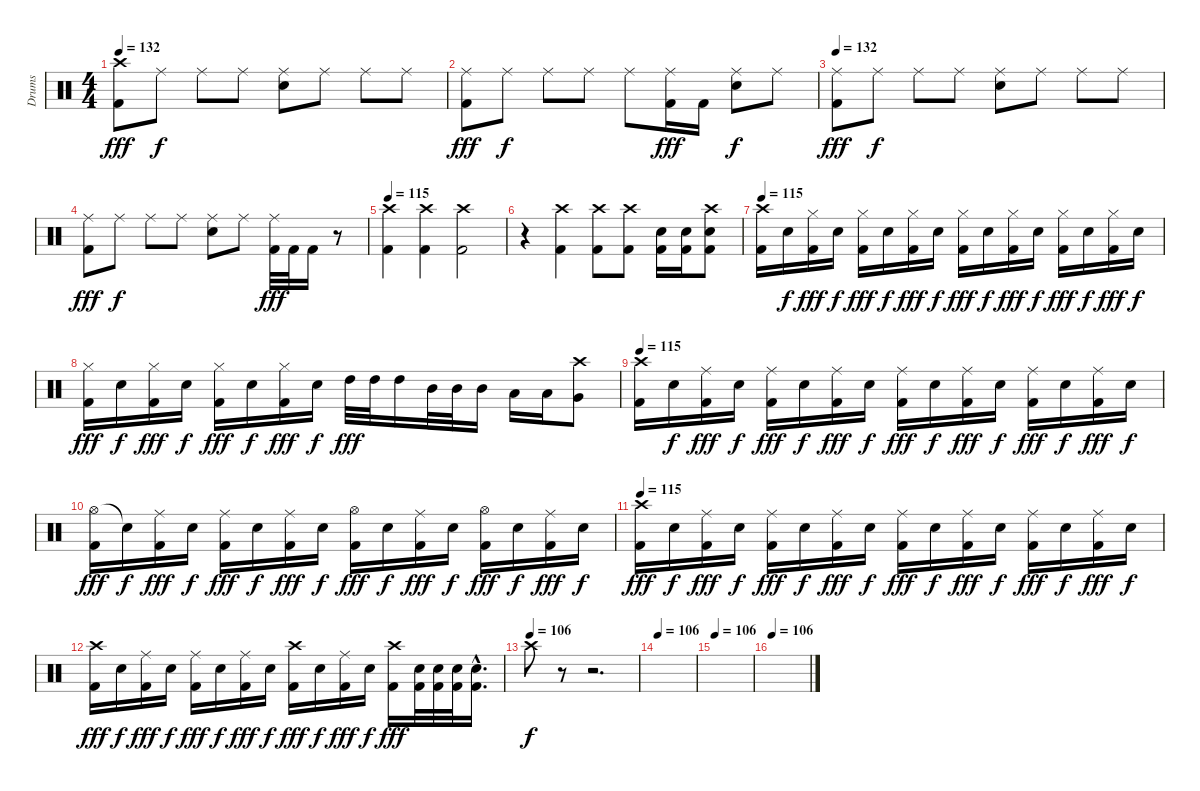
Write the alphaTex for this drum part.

\track ("Drums" "Drums") {instrument percussion}
\staff {score}
\articulation defaults
\ts (4 4)
\tempo 132
\clef neutral
\ks c
("Crash high (hit)" "Kick (hit) 2").8{dy fff} "Ride (middle)".8{dy f} "Ride (middle)".8 "Ride (middle)".8 ("Ride (middle)" "Snare (hit) 2").8 "Ride (middle)".8 "Ride (middle)".8 "Ride (middle)".8 |
("Ride (middle)" "Kick (hit) 2").8{dy fff} "Ride (middle)".8{dy f} "Ride (middle)".8 "Ride (middle)".8 "Ride (middle)".8 ("Ride (middle)" "Kick (hit) 2").16{dy fff} "Kick (hit) 2".16 ("Ride (middle)" "Snare (hit) 2").8{dy f} "Ride (middle)".8 |
\tempo 132
("Ride (middle)" "Kick (hit) 2").8{dy fff} "Ride (middle)".8{dy f} "Ride (middle)".8 "Ride (middle)".8 ("Ride (middle)" "Snare (hit) 2").8 "Ride (middle)".8 "Ride (middle)".8 "Ride (middle)".8 |
("Ride (middle)" "Kick (hit) 2").8{dy fff} "Ride (middle)".8{dy f} "Ride (middle)".8 "Ride (middle)".8 ("Ride (middle)" "Snare (hit) 2").8 "Ride (middle)".8 ("Ride (middle)" "Kick (hit) 2").32{dy fff} "Kick (hit) 2".32 "Kick (hit) 2".16 r.8 |
\tempo 115
("Crash high (hit)" "Kick (hit) 2").4 ("Crash high (hit)" "Kick (hit) 2").4 ("Crash high (hit)" "Kick (hit) 2").2 |
r.4 ("Crash high (hit)" "Kick (hit) 2").4 ("Crash high (hit)" "Kick (hit) 2").8 ("Crash high (hit)" "Kick (hit) 2").8 ("Snare (hit) 2" "Kick (hit) 2").16 ("Snare (hit) 2" "Kick (hit) 2").16 ("Crash high (hit)" "Snare (hit) 2" "Kick (hit) 2").8 |
\tempo 115
("Crash high (hit)" "Kick (hit) 2").16 "Snare (hit) 2".16{dy f} ("Hi-Hat (closed)" "Kick (hit) 2").16{dy fff} "Snare (hit) 2".16{dy f} ("Hi-Hat (closed)" "Kick (hit) 2").16{dy fff} "Snare (hit) 2".16{dy f} ("Hi-Hat (closed)" "Kick (hit) 2").16{dy fff} "Snare (hit) 2".16{dy f} ("Hi-Hat (closed)" "Kick (hit) 2").16{dy fff} "Snare (hit) 2".16{dy f} ("Hi-Hat (closed)" "Kick (hit) 2").16{dy fff} "Snare (hit) 2".16{dy f} ("Hi-Hat (closed)" "Kick (hit) 2").16{dy fff} "Snare (hit) 2".16{dy f} ("Hi-Hat (closed)" "Kick (hit) 2").16{dy fff} "Snare (hit) 2".16{dy f} |
("Hi-Hat (closed)" "Kick (hit) 2").16{dy fff} "Snare (hit) 2".16{dy f} ("Hi-Hat (closed)" "Kick (hit) 2").16{dy fff} "Snare (hit) 2".16{dy f} ("Hi-Hat (closed)" "Kick (hit) 2").16{dy fff} "Snare (hit) 2".16{dy f} ("Hi-Hat (closed)" "Kick (hit) 2").16{dy fff} "Snare (hit) 2".16{dy f} "High Tom (hit)".32{dy fff} "High Tom (hit)".32 "High Tom (hit)".16 "Mid Tom (hit)".32 "Mid Tom (hit)".32 "Mid Tom (hit)".16 "Low Tom (hit)".16 "Low Tom (hit)".16 ("Crash high (hit)" "Very Low Tom (hit)").8 |
\tempo 115
("Crash high (hit)" "Kick (hit) 2").16 "Snare (hit) 2".16{dy f} ("Ride (middle)" "Kick (hit) 2").16{dy fff} "Snare (hit) 2".16{dy f} ("Ride (middle)" "Kick (hit) 2").16{dy fff} "Snare (hit) 2".16{dy f} ("Ride (middle)" "Kick (hit) 2").16{dy fff} "Snare (hit) 2".16{dy f} ("Ride (middle)" "Kick (hit) 2").16{dy fff} "Snare (hit) 2".16{dy f} ("Ride (middle)" "Kick (hit) 2").16{dy fff} "Snare (hit) 2".16{dy f} ("Ride (middle)" "Kick (hit) 2").16{dy fff} "Snare (hit) 2".16{dy f} ("Ride (middle)" "Kick (hit) 2").16{dy fff} "Snare (hit) 2".16{dy f} |
("Hi-Hat (open)" "Kick (hit) 2").16{dy fff} "Snare (hit)"{t}.16{dy f} ("Ride (middle)" "Kick (hit) 2").16{dy fff} "Snare (hit) 2".16{dy f} ("Ride (middle)" "Kick (hit) 2").16{dy fff} "Snare (hit) 2".16{dy f} ("Ride (middle)" "Kick (hit) 2").16{dy fff} "Snare (hit) 2".16{dy f} ("Hi-Hat (open)" "Kick (hit) 2").16{dy fff} "Snare (hit) 2".16{dy f} ("Ride (middle)" "Kick (hit) 2").16{dy fff} "Snare (hit) 2".16{dy f} ("Hi-Hat (open)" "Kick (hit) 2").16{dy fff} "Snare (hit) 2".16{dy f} ("Ride (middle)" "Kick (hit) 2").16{dy fff} "Snare (hit) 2".16{dy f} |
\tempo 115
("Crash high (hit)" "Kick (hit) 2").16{dy fff} "Snare (hit) 2".16{dy f} ("Ride (middle)" "Kick (hit) 2").16{dy fff} "Snare (hit) 2".16{dy f} ("Ride (middle)" "Kick (hit) 2").16{dy fff} "Snare (hit) 2".16{dy f} ("Ride (middle)" "Kick (hit) 2").16{dy fff} "Snare (hit) 2".16{dy f} ("Ride (middle)" "Kick (hit) 2").16{dy fff} "Snare (hit) 2".16{dy f} ("Ride (middle)" "Kick (hit) 2").16{dy fff} "Snare (hit) 2".16{dy f} ("Ride (middle)" "Kick (hit) 2").16{dy fff} "Snare (hit) 2".16{dy f} ("Ride (middle)" "Kick (hit) 2").16{dy fff} "Snare (hit) 2".16{dy f} |
("Crash high (hit)" "Kick (hit) 2").16{dy fff} "Snare (hit) 2".16{dy f} ("Ride (middle)" "Kick (hit) 2").16{dy fff} "Snare (hit) 2".16{dy f} ("Ride (middle)" "Kick (hit) 2").16{dy fff} "Snare (hit) 2".16{dy f} ("Ride (middle)" "Kick (hit) 2").16{dy fff} "Snare (hit) 2".16{dy f} ("Crash high (hit)" "Kick (hit) 2").16{dy fff} "Snare (hit) 2".16{dy f} ("Ride (middle)" "Kick (hit) 2").16{dy fff} "Snare (hit) 2".16{dy f} ("Crash high (hit)" "Kick (hit) 2").16{dy fff} ("Snare (hit) 2" "Kick (hit) 2").32 ("Snare (hit) 2" "Kick (hit) 2").32 ("Snare (hit) 2" "Kick (hit) 2").32 ("Snare (hit) 2"{hac} "Kick (hit) 2"{hac}).16{d} |
\tempo (106)
"Crash high (hit)".8{dy f} r.8 r.2{d} |
\tempo 106
|
\tempo 106
|
\tempo 106
